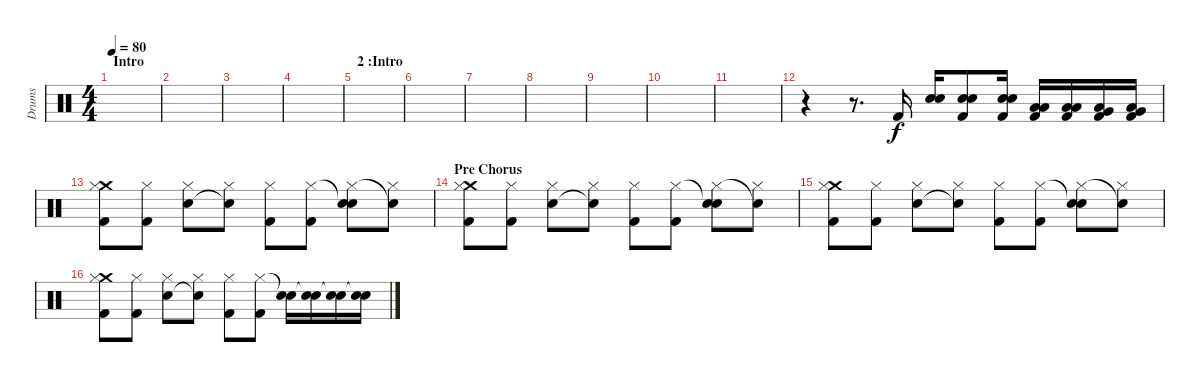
\track ("Drums" "Drums") {instrument percussion}
\staff {score}
\articulation defaults
\ts (4 4)
\section ("" "Intro")
\tempo 80
\clef neutral
\ks c
|
|
|
|
\section ("" "2 :Intro ")
|
|
|
|
|
|
|
r.4 r.8{d} "Kick (hit) 2".16 ("Electric Snare (hit)" "Electric Snare (hit)").16 ("Electric Snare (hit)" "Electric Snare (hit)" "Kick (hit) 2").8 ("Electric Snare (hit)" "Electric Snare (hit)" "Kick (hit) 2").16 ("Low Tom (hit)" "Low Floor Tom (hit)" "Kick (hit) 2").16 ("Low Tom (hit)" "Low Floor Tom (hit)" "Kick (hit) 2").16 ("Very Low Tom (hit)" "Low Floor Tom (hit)" "Kick (hit) 2").16 ("Very Low Tom (hit)" "Low Floor Tom (hit)" "Kick (hit) 2").16 |
("Crash medium (hit)" "Hi-Hat (closed)" "Kick (hit) 2").8 ("Hi-Hat (closed)" "Kick (hit) 2").8 ("Hi-Hat (closed)" "Electric Snare (hit)").8 ("Hi-Hat (closed)" "Snare (hit)"{t}).8 ("Hi-Hat (closed)" "Kick (hit) 2").8 ("Hi-Hat (closed)" "Kick (hit) 2").8 ("Snare (hit)"{t} "Hi-Hat (closed)" "Electric Snare (hit)").8 ("Hi-Hat (closed)" "Snare (hit)"{t}).8 |
\section ("" "Pre Chorus ")
("Crash medium (hit)" "Hi-Hat (closed)" "Kick (hit) 2").8 ("Hi-Hat (closed)" "Kick (hit) 2").8 ("Hi-Hat (closed)" "Electric Snare (hit)").8 ("Hi-Hat (closed)" "Snare (hit)"{t}).8 ("Hi-Hat (closed)" "Kick (hit) 2").8 ("Hi-Hat (closed)" "Kick (hit) 2").8 ("Snare (hit)"{t} "Hi-Hat (closed)" "Electric Snare (hit)").8 ("Hi-Hat (closed)" "Snare (hit)"{t}).8 |
("Crash medium (hit)" "Hi-Hat (closed)" "Kick (hit) 2").8 ("Hi-Hat (closed)" "Kick (hit) 2").8 ("Hi-Hat (closed)" "Electric Snare (hit)").8 ("Hi-Hat (closed)" "Snare (hit)"{t}).8 ("Hi-Hat (closed)" "Kick (hit) 2").8 ("Hi-Hat (closed)" "Kick (hit) 2").8 ("Snare (hit)"{t} "Hi-Hat (closed)" "Electric Snare (hit)").8 ("Hi-Hat (closed)" "Snare (hit)"{t}).8 |
("Crash medium (hit)" "Hi-Hat (closed)" "Kick (hit) 2").8 ("Hi-Hat (closed)" "Kick (hit) 2").8 ("Hi-Hat (closed)" "Electric Snare (hit)").8 ("Hi-Hat (closed)" "Snare (hit)"{t}).8 ("Hi-Hat (closed)" "Kick (hit) 2").8 ("Hi-Hat (closed)" "Kick (hit) 2").8 ("Snare (hit)"{t} "Electric Snare (hit)").16 ("Snare (hit)"{t} "Electric Snare (hit)").16 ("Snare (hit)"{t} "Electric Snare (hit)").16 ("Snare (hit)"{t} "Electric Snare (hit)").16
